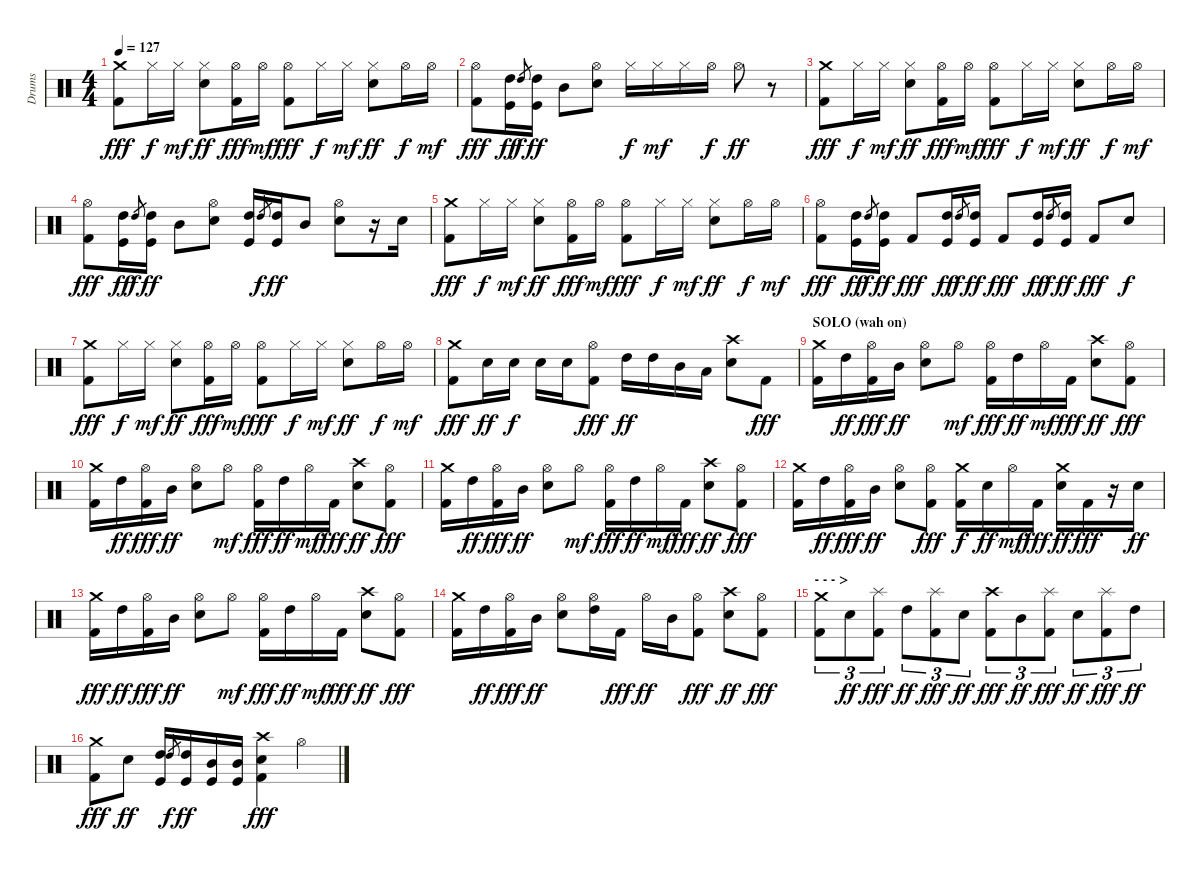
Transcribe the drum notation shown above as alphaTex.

\track ("Drums" "Drums") {instrument percussion}
\staff {score}
\articulation defaults
\ts (4 4)
\tempo 127
\clef neutral
\ks c
("Crash medium (hit)" "Kick (hit) 2").8{dy fff} "Hi-Hat (closed)".16{dy f} "Hi-Hat (closed)".16{dy mf} ("Hi-Hat (closed)" "Snare (hit) 2").8{dy ff} ("Hi-Hat (open)" "Kick (hit) 2").16{dy fff} "Hi-Hat (open)".16{dy mf} ("Hi-Hat (open)" "Kick (hit) 2").8{dy fff} "Hi-Hat (closed)".16{dy f} "Hi-Hat (closed)".16{dy mf} ("Hi-Hat (closed)" "Snare (hit) 2").8{dy ff} "Hi-Hat (open)".16{dy f} "Hi-Hat (open)".16{dy mf} |
("Hi-Hat (open)" "Kick (hit) 2").8{dy fff} ("High Tom (hit)" "Kick (hit)").16{dy ff} "High Tom (hit)".8{gr dy f} ("High Tom (hit)" "Kick (hit)").16{dy ff} "Mid Tom (hit)".8 ("Hi-Hat (open)" "Snare (hit) 2").8 "Hi-Hat (closed)".16{dy f} "Hi-Hat (closed)".16{dy mf} "Hi-Hat (closed)".16 "Hi-Hat (open)".16{dy f} "Hi-Hat (open)".8{dy ff} r.8 |
("Crash medium (hit)" "Kick (hit) 2").8{dy fff} "Hi-Hat (closed)".16{dy f} "Hi-Hat (closed)".16{dy mf} ("Hi-Hat (closed)" "Snare (hit) 2").8{dy ff} ("Hi-Hat (open)" "Kick (hit) 2").16{dy fff} "Hi-Hat (open)".16{dy mf} ("Hi-Hat (open)" "Kick (hit) 2").8{dy fff} "Hi-Hat (closed)".16{dy f} "Hi-Hat (closed)".16{dy mf} ("Hi-Hat (closed)" "Snare (hit) 2").8{dy ff} "Hi-Hat (open)".16{dy f} "Hi-Hat (open)".16{dy mf} |
("Hi-Hat (open)" "Kick (hit) 2").8{dy fff} ("High Tom (hit)" "Kick (hit)").16{dy ff} "High Tom (hit)".8{gr dy f} ("High Tom (hit)" "Kick (hit)").16{dy ff} "Mid Tom (hit)".8 ("Hi-Hat (open)" "Snare (hit) 2").8 ("High Tom (hit)" "Kick (hit)").16 "High Tom (hit)".8{gr dy f} ("High Tom (hit)" "Kick (hit)").16{dy ff} "Mid Tom (hit)".8 ("Hi-Hat (open)" "Snare (hit) 2").8 r.16 "Snare (hit) 2".16 |
("Crash medium (hit)" "Kick (hit) 2").8{dy fff} "Hi-Hat (closed)".16{dy f} "Hi-Hat (closed)".16{dy mf} ("Hi-Hat (closed)" "Snare (hit) 2").8{dy ff} ("Hi-Hat (open)" "Kick (hit) 2").16{dy fff} "Hi-Hat (open)".16{dy mf} ("Hi-Hat (open)" "Kick (hit) 2").8{dy fff} "Hi-Hat (closed)".16{dy f} "Hi-Hat (closed)".16{dy mf} ("Hi-Hat (closed)" "Snare (hit) 2").8{dy ff} "Hi-Hat (open)".16{dy f} "Hi-Hat (open)".16{dy mf} |
("Hi-Hat (open)" "Kick (hit) 2").8{dy fff} ("High Tom (hit)" "Kick (hit)").16{dy ff} "High Tom (hit)".8{gr dy f} ("High Tom (hit)" "Kick (hit)").16{dy ff} "Kick (hit) 2".8{dy fff} ("High Tom (hit)" "Kick (hit)").16{dy ff} "High Tom (hit)".8{gr dy f} ("High Tom (hit)" "Kick (hit)").16{dy ff} "Kick (hit) 2".8{dy fff} ("High Tom (hit)" "Kick (hit)").16{dy ff} "High Tom (hit)".8{gr dy f} ("High Tom (hit)" "Kick (hit)").16{dy ff} "Kick (hit) 2".8{dy fff} "Snare (hit) 2".8{dy f} |
("Crash medium (hit)" "Kick (hit) 2").8{dy fff} "Hi-Hat (closed)".16{dy f} "Hi-Hat (closed)".16{dy mf} ("Hi-Hat (closed)" "Snare (hit) 2").8{dy ff} ("Hi-Hat (open)" "Kick (hit) 2").16{dy fff} "Hi-Hat (open)".16{dy mf} ("Hi-Hat (open)" "Kick (hit) 2").8{dy fff} "Hi-Hat (closed)".16{dy f} "Hi-Hat (closed)".16{dy mf} ("Hi-Hat (closed)" "Snare (hit) 2").8{dy ff} "Hi-Hat (open)".16{dy f} "Hi-Hat (open)".16{dy mf} |
("Crash medium (hit)" "Kick (hit) 2").8{dy fff} "Snare (hit) 2".16{dy ff} "Snare (hit) 2".16{dy f} "Snare (hit) 2".16 "Snare (hit) 2".16 ("Hi-Hat (open)" "Kick (hit) 2").8{dy fff} "High Tom (hit)".16{dy ff} "High Tom (hit)".16 "Mid Tom (hit)".16 "Low Tom (hit)".16 ("Crash high (hit)" "Snare (hit) 2").8 "Kick (hit) 2".8{dy fff} |
\section ("" "SOLO (wah on)")
("Crash medium (hit)" "Kick (hit) 2").16 "High Tom (hit)".16{dy ff} ("Hi-Hat (open)" "Kick (hit) 2").16{dy fff} "Mid Tom (hit)".16{dy ff} ("Hi-Hat (open)" "Snare (hit) 2").8 "Hi-Hat (open)".8{dy mf} ("Hi-Hat (open)" "Kick (hit) 2").16{dy fff} "High Tom (hit)".16{dy ff} "Hi-Hat (open)".16{dy mf} "Kick (hit) 2".16{dy fff} ("Crash high (hit)" "Snare (hit) 2").8{dy ff} ("Hi-Hat (open)" "Kick (hit) 2").8{dy fff} |
("Crash medium (hit)" "Kick (hit) 2").16 "High Tom (hit)".16{dy ff} ("Hi-Hat (open)" "Kick (hit) 2").16{dy fff} "Mid Tom (hit)".16{dy ff} ("Hi-Hat (open)" "Snare (hit) 2").8 "Hi-Hat (open)".8{dy mf} ("Hi-Hat (open)" "Kick (hit) 2").16{dy fff} "High Tom (hit)".16{dy ff} "Hi-Hat (open)".16{dy mf} "Kick (hit) 2".16{dy fff} ("Crash high (hit)" "Snare (hit) 2").8{dy ff} ("Hi-Hat (open)" "Kick (hit) 2").8{dy fff} |
("Crash medium (hit)" "Kick (hit) 2").16 "High Tom (hit)".16{dy ff} ("Hi-Hat (open)" "Kick (hit) 2").16{dy fff} "Mid Tom (hit)".16{dy ff} ("Hi-Hat (open)" "Snare (hit) 2").8 "Hi-Hat (open)".8{dy mf} ("Hi-Hat (open)" "Kick (hit) 2").16{dy fff} "High Tom (hit)".16{dy ff} "Hi-Hat (open)".16{dy mf} "Kick (hit) 2".16{dy fff} ("Crash high (hit)" "Snare (hit) 2").8{dy ff} ("Hi-Hat (open)" "Kick (hit) 2").8{dy fff} |
("Crash medium (hit)" "Kick (hit) 2").16 "High Tom (hit)".16{dy ff} ("Hi-Hat (open)" "Kick (hit) 2").16{dy fff} "Mid Tom (hit)".16{dy ff} ("Hi-Hat (open)" "Snare (hit) 2").8 ("Hi-Hat (open)" "Kick (hit) 2").8{dy fff} ("Crash medium (hit)" "Kick (hit) 2").16{dy f} "Snare (hit) 2".16{dy ff} "Hi-Hat (open)".16{dy mf} "Kick (hit) 2".16{dy fff} ("Crash medium (hit)" "Snare (hit) 2").16{dy ff} "Kick (hit) 2".16{dy fff} r.16 "Snare (hit) 2".16{dy ff} |
("Crash medium (hit)" "Kick (hit) 2").16{dy fff} "High Tom (hit)".16{dy ff} ("Hi-Hat (open)" "Kick (hit) 2").16{dy fff} "Mid Tom (hit)".16{dy ff} ("Hi-Hat (open)" "Snare (hit) 2").8 "Hi-Hat (open)".8{dy mf} ("Hi-Hat (open)" "Kick (hit) 2").16{dy fff} "High Tom (hit)".16{dy ff} "Hi-Hat (open)".16{dy mf} "Kick (hit) 2".16{dy fff} ("Crash high (hit)" "Snare (hit) 2").8{dy ff} ("Hi-Hat (open)" "Kick (hit) 2").8{dy fff} |
("Crash medium (hit)" "Kick (hit) 2").16 "High Tom (hit)".16{dy ff} ("Hi-Hat (open)" "Kick (hit) 2").16{dy fff} "Mid Tom (hit)".16{dy ff} ("Hi-Hat (open)" "Snare (hit) 2").8 ("Hi-Hat (open)" "High Tom (hit)").16 "Kick (hit) 2".16{dy fff} "Hi-Hat (open)".16{dy ff} "Mid Tom (hit)".16 ("Hi-Hat (open)" "Kick (hit) 2").8{dy fff} ("Crash high (hit)" "Snare (hit) 2").8{dy ff} ("Hi-Hat (open)" "Kick (hit) 2").8{dy fff} |
\section ("" "- - - >")
("Crash medium (hit)" "Kick (hit) 2").8{tu (3 2)} "Snare (hit) 2".8{tu (3 2) dy ff} ("Splash (hit)" "Kick (hit) 2").8{tu (3 2) dy fff} "High Tom (hit)".8{tu (3 2) dy ff} ("Splash (hit)" "Kick (hit) 2").8{tu (3 2) dy fff} "Snare (hit) 2".8{tu (3 2) dy ff} ("Crash high (hit)" "Kick (hit) 2").8{tu (3 2) dy fff} "Mid Tom (hit)".8{tu (3 2) dy ff} ("Splash (hit)" "Kick (hit) 2").8{tu (3 2) dy fff} "Snare (hit) 2".8{tu (3 2) dy ff} ("Splash (hit)" "Kick (hit) 2").8{tu (3 2) dy fff} "High Tom (hit)".8{tu (3 2) dy ff} |
("Crash medium (hit)" "Kick (hit) 2").8{dy fff} "Snare (hit) 2".8{dy ff} ("High Tom (hit)" "Kick (hit)").16 "High Tom (hit)".8{gr dy f} ("High Tom (hit)" "Kick (hit)").16{dy ff} ("Mid Tom (hit)" "Kick (hit)").16 ("Mid Tom (hit)" "Kick (hit)").16 ("Crash high (hit)" "Snare (hit) 2" "Kick (hit) 2").4{dy fff} "Hi-Hat (open)".4
